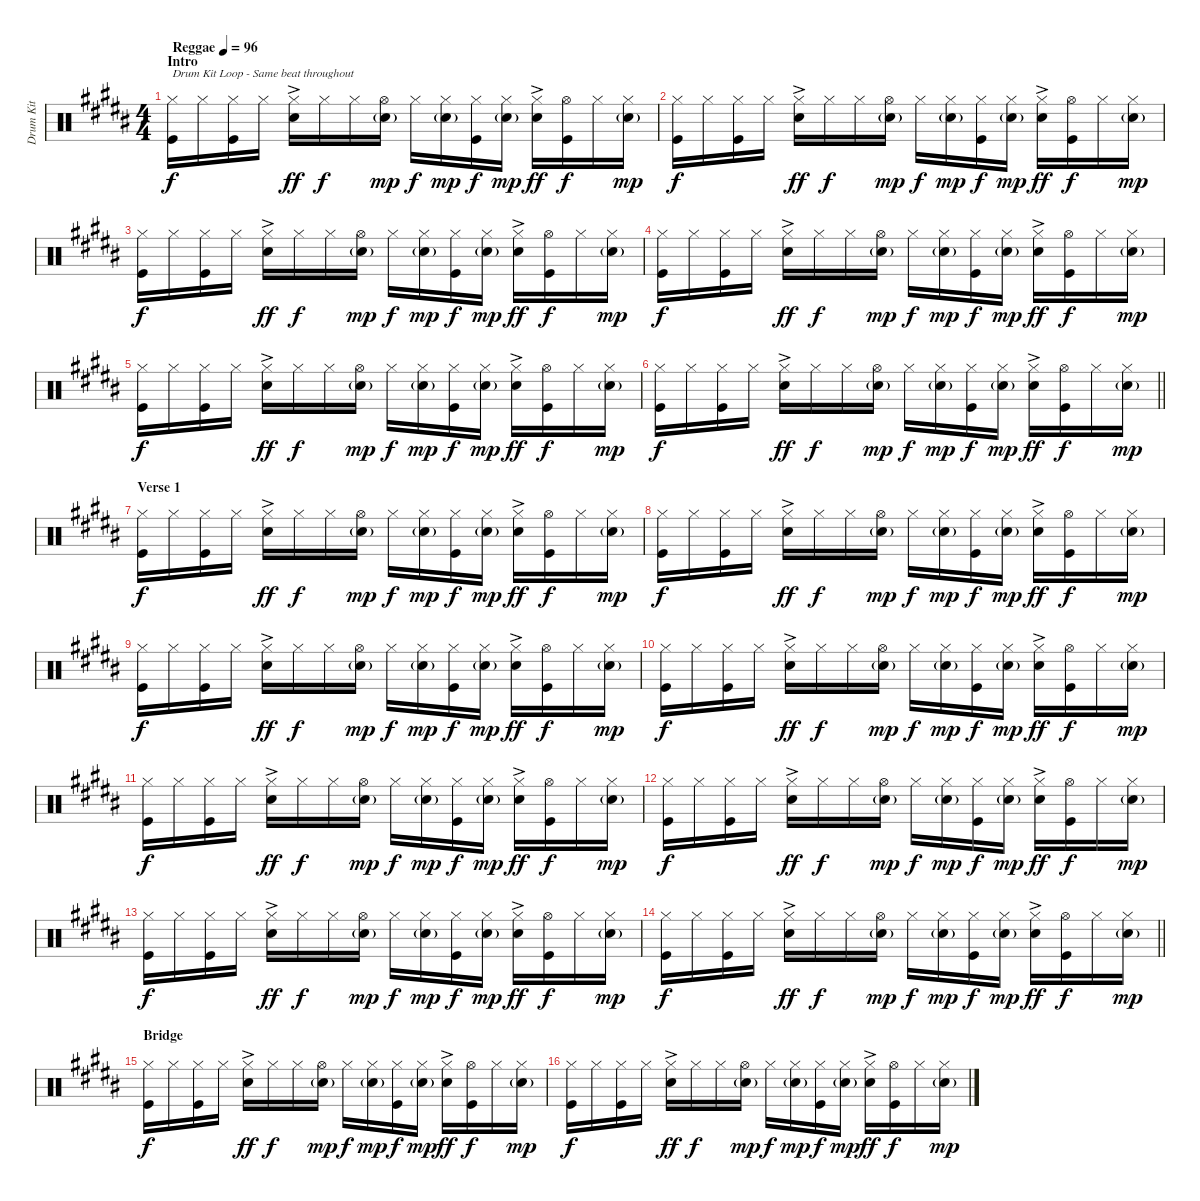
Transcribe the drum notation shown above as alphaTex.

\track ("Drum Kit" "Drum Kit") {instrument percussion}
\staff {score}
\articulation defaults
\ts (4 4)
\section ("" "Intro")
\tempo (96 "Reggae")
\clef neutral
\ks b
("Kick (hit)" "Hi-Hat (closed)").16{txt "Drum Kit Loop - Same beat throughout" dy f} "Hi-Hat (closed)".16 ("Kick (hit)" "Hi-Hat (closed)").16 "Hi-Hat (closed)".16 ("Snare (hit) 2"{ac} "Hi-Hat (closed)").16{dy ff} "Hi-Hat (closed)".16{dy f} "Hi-Hat (closed)".16 ("Snare (hit) 2"{g} "Hi-Hat (open)").16{dy mp} "Hi-Hat (closed)".16{dy f} ("Snare (hit) 2"{g} "Hi-Hat (closed)").16{dy mp} ("Kick (hit)" "Hi-Hat (closed)").16{dy f} ("Snare (hit) 2"{g} "Hi-Hat (closed)").16{dy mp} ("Snare (hit) 2"{ac} "Hi-Hat (closed)").16{dy ff} ("Kick (hit)" "Hi-Hat (open)").16{dy f} "Hi-Hat (closed)".16 ("Snare (hit) 2"{g} "Hi-Hat (closed)").16{dy mp} |
("Kick (hit)" "Hi-Hat (closed)").16{dy f} "Hi-Hat (closed)".16 ("Kick (hit)" "Hi-Hat (closed)").16 "Hi-Hat (closed)".16 ("Snare (hit) 2"{ac} "Hi-Hat (closed)").16{dy ff} "Hi-Hat (closed)".16{dy f} "Hi-Hat (closed)".16 ("Snare (hit) 2"{g} "Hi-Hat (open)").16{dy mp} "Hi-Hat (closed)".16{dy f} ("Snare (hit) 2"{g} "Hi-Hat (closed)").16{dy mp} ("Kick (hit)" "Hi-Hat (closed)").16{dy f} ("Snare (hit) 2"{g} "Hi-Hat (closed)").16{dy mp} ("Snare (hit) 2"{ac} "Hi-Hat (closed)").16{dy ff} ("Kick (hit)" "Hi-Hat (open)").16{dy f} "Hi-Hat (closed)".16 ("Snare (hit) 2"{g} "Hi-Hat (closed)").16{dy mp} |
("Kick (hit)" "Hi-Hat (closed)").16{dy f} "Hi-Hat (closed)".16 ("Kick (hit)" "Hi-Hat (closed)").16 "Hi-Hat (closed)".16 ("Snare (hit) 2"{ac} "Hi-Hat (closed)").16{dy ff} "Hi-Hat (closed)".16{dy f} "Hi-Hat (closed)".16 ("Snare (hit) 2"{g} "Hi-Hat (open)").16{dy mp} "Hi-Hat (closed)".16{dy f} ("Snare (hit) 2"{g} "Hi-Hat (closed)").16{dy mp} ("Kick (hit)" "Hi-Hat (closed)").16{dy f} ("Snare (hit) 2"{g} "Hi-Hat (closed)").16{dy mp} ("Snare (hit) 2"{ac} "Hi-Hat (closed)").16{dy ff} ("Kick (hit)" "Hi-Hat (open)").16{dy f} "Hi-Hat (closed)".16 ("Snare (hit) 2"{g} "Hi-Hat (closed)").16{dy mp} |
("Kick (hit)" "Hi-Hat (closed)").16{dy f} "Hi-Hat (closed)".16 ("Kick (hit)" "Hi-Hat (closed)").16 "Hi-Hat (closed)".16 ("Snare (hit) 2"{ac} "Hi-Hat (closed)").16{dy ff} "Hi-Hat (closed)".16{dy f} "Hi-Hat (closed)".16 ("Snare (hit) 2"{g} "Hi-Hat (open)").16{dy mp} "Hi-Hat (closed)".16{dy f} ("Snare (hit) 2"{g} "Hi-Hat (closed)").16{dy mp} ("Kick (hit)" "Hi-Hat (closed)").16{dy f} ("Snare (hit) 2"{g} "Hi-Hat (closed)").16{dy mp} ("Snare (hit) 2"{ac} "Hi-Hat (closed)").16{dy ff} ("Kick (hit)" "Hi-Hat (open)").16{dy f} "Hi-Hat (closed)".16 ("Snare (hit) 2"{g} "Hi-Hat (closed)").16{dy mp} |
("Kick (hit)" "Hi-Hat (closed)").16{dy f} "Hi-Hat (closed)".16 ("Kick (hit)" "Hi-Hat (closed)").16 "Hi-Hat (closed)".16 ("Snare (hit) 2"{ac} "Hi-Hat (closed)").16{dy ff} "Hi-Hat (closed)".16{dy f} "Hi-Hat (closed)".16 ("Snare (hit) 2"{g} "Hi-Hat (open)").16{dy mp} "Hi-Hat (closed)".16{dy f} ("Snare (hit) 2"{g} "Hi-Hat (closed)").16{dy mp} ("Kick (hit)" "Hi-Hat (closed)").16{dy f} ("Snare (hit) 2"{g} "Hi-Hat (closed)").16{dy mp} ("Snare (hit) 2"{ac} "Hi-Hat (closed)").16{dy ff} ("Kick (hit)" "Hi-Hat (open)").16{dy f} "Hi-Hat (closed)".16 ("Snare (hit) 2"{g} "Hi-Hat (closed)").16{dy mp} |
\barLineRight lightlight
("Kick (hit)" "Hi-Hat (closed)").16{dy f} "Hi-Hat (closed)".16 ("Kick (hit)" "Hi-Hat (closed)").16 "Hi-Hat (closed)".16 ("Snare (hit) 2"{ac} "Hi-Hat (closed)").16{dy ff} "Hi-Hat (closed)".16{dy f} "Hi-Hat (closed)".16 ("Snare (hit) 2"{g} "Hi-Hat (open)").16{dy mp} "Hi-Hat (closed)".16{dy f} ("Snare (hit) 2"{g} "Hi-Hat (closed)").16{dy mp} ("Kick (hit)" "Hi-Hat (closed)").16{dy f} ("Snare (hit) 2"{g} "Hi-Hat (closed)").16{dy mp} ("Snare (hit) 2"{ac} "Hi-Hat (closed)").16{dy ff} ("Kick (hit)" "Hi-Hat (open)").16{dy f} "Hi-Hat (closed)".16 ("Snare (hit) 2"{g} "Hi-Hat (closed)").16{dy mp} |
\section ("" "Verse 1")
("Kick (hit)" "Hi-Hat (closed)").16{dy f} "Hi-Hat (closed)".16 ("Kick (hit)" "Hi-Hat (closed)").16 "Hi-Hat (closed)".16 ("Snare (hit) 2"{ac} "Hi-Hat (closed)").16{dy ff} "Hi-Hat (closed)".16{dy f} "Hi-Hat (closed)".16 ("Snare (hit) 2"{g} "Hi-Hat (open)").16{dy mp} "Hi-Hat (closed)".16{dy f} ("Snare (hit) 2"{g} "Hi-Hat (closed)").16{dy mp} ("Kick (hit)" "Hi-Hat (closed)").16{dy f} ("Snare (hit) 2"{g} "Hi-Hat (closed)").16{dy mp} ("Snare (hit) 2"{ac} "Hi-Hat (closed)").16{dy ff} ("Kick (hit)" "Hi-Hat (open)").16{dy f} "Hi-Hat (closed)".16 ("Snare (hit) 2"{g} "Hi-Hat (closed)").16{dy mp} |
("Kick (hit)" "Hi-Hat (closed)").16{dy f} "Hi-Hat (closed)".16 ("Kick (hit)" "Hi-Hat (closed)").16 "Hi-Hat (closed)".16 ("Snare (hit) 2"{ac} "Hi-Hat (closed)").16{dy ff} "Hi-Hat (closed)".16{dy f} "Hi-Hat (closed)".16 ("Snare (hit) 2"{g} "Hi-Hat (open)").16{dy mp} "Hi-Hat (closed)".16{dy f} ("Snare (hit) 2"{g} "Hi-Hat (closed)").16{dy mp} ("Kick (hit)" "Hi-Hat (closed)").16{dy f} ("Snare (hit) 2"{g} "Hi-Hat (closed)").16{dy mp} ("Snare (hit) 2"{ac} "Hi-Hat (closed)").16{dy ff} ("Kick (hit)" "Hi-Hat (open)").16{dy f} "Hi-Hat (closed)".16 ("Snare (hit) 2"{g} "Hi-Hat (closed)").16{dy mp} |
("Kick (hit)" "Hi-Hat (closed)").16{dy f} "Hi-Hat (closed)".16 ("Kick (hit)" "Hi-Hat (closed)").16 "Hi-Hat (closed)".16 ("Snare (hit) 2"{ac} "Hi-Hat (closed)").16{dy ff} "Hi-Hat (closed)".16{dy f} "Hi-Hat (closed)".16 ("Snare (hit) 2"{g} "Hi-Hat (open)").16{dy mp} "Hi-Hat (closed)".16{dy f} ("Snare (hit) 2"{g} "Hi-Hat (closed)").16{dy mp} ("Kick (hit)" "Hi-Hat (closed)").16{dy f} ("Snare (hit) 2"{g} "Hi-Hat (closed)").16{dy mp} ("Snare (hit) 2"{ac} "Hi-Hat (closed)").16{dy ff} ("Kick (hit)" "Hi-Hat (open)").16{dy f} "Hi-Hat (closed)".16 ("Snare (hit) 2"{g} "Hi-Hat (closed)").16{dy mp} |
("Kick (hit)" "Hi-Hat (closed)").16{dy f} "Hi-Hat (closed)".16 ("Kick (hit)" "Hi-Hat (closed)").16 "Hi-Hat (closed)".16 ("Snare (hit) 2"{ac} "Hi-Hat (closed)").16{dy ff} "Hi-Hat (closed)".16{dy f} "Hi-Hat (closed)".16 ("Snare (hit) 2"{g} "Hi-Hat (open)").16{dy mp} "Hi-Hat (closed)".16{dy f} ("Snare (hit) 2"{g} "Hi-Hat (closed)").16{dy mp} ("Kick (hit)" "Hi-Hat (closed)").16{dy f} ("Snare (hit) 2"{g} "Hi-Hat (closed)").16{dy mp} ("Snare (hit) 2"{ac} "Hi-Hat (closed)").16{dy ff} ("Kick (hit)" "Hi-Hat (open)").16{dy f} "Hi-Hat (closed)".16 ("Snare (hit) 2"{g} "Hi-Hat (closed)").16{dy mp} |
("Kick (hit)" "Hi-Hat (closed)").16{dy f} "Hi-Hat (closed)".16 ("Kick (hit)" "Hi-Hat (closed)").16 "Hi-Hat (closed)".16 ("Snare (hit) 2"{ac} "Hi-Hat (closed)").16{dy ff} "Hi-Hat (closed)".16{dy f} "Hi-Hat (closed)".16 ("Snare (hit) 2"{g} "Hi-Hat (open)").16{dy mp} "Hi-Hat (closed)".16{dy f} ("Snare (hit) 2"{g} "Hi-Hat (closed)").16{dy mp} ("Kick (hit)" "Hi-Hat (closed)").16{dy f} ("Snare (hit) 2"{g} "Hi-Hat (closed)").16{dy mp} ("Snare (hit) 2"{ac} "Hi-Hat (closed)").16{dy ff} ("Kick (hit)" "Hi-Hat (open)").16{dy f} "Hi-Hat (closed)".16 ("Snare (hit) 2"{g} "Hi-Hat (closed)").16{dy mp} |
("Kick (hit)" "Hi-Hat (closed)").16{dy f} "Hi-Hat (closed)".16 ("Kick (hit)" "Hi-Hat (closed)").16 "Hi-Hat (closed)".16 ("Snare (hit) 2"{ac} "Hi-Hat (closed)").16{dy ff} "Hi-Hat (closed)".16{dy f} "Hi-Hat (closed)".16 ("Snare (hit) 2"{g} "Hi-Hat (open)").16{dy mp} "Hi-Hat (closed)".16{dy f} ("Snare (hit) 2"{g} "Hi-Hat (closed)").16{dy mp} ("Kick (hit)" "Hi-Hat (closed)").16{dy f} ("Snare (hit) 2"{g} "Hi-Hat (closed)").16{dy mp} ("Snare (hit) 2"{ac} "Hi-Hat (closed)").16{dy ff} ("Kick (hit)" "Hi-Hat (open)").16{dy f} "Hi-Hat (closed)".16 ("Snare (hit) 2"{g} "Hi-Hat (closed)").16{dy mp} |
("Kick (hit)" "Hi-Hat (closed)").16{dy f} "Hi-Hat (closed)".16 ("Kick (hit)" "Hi-Hat (closed)").16 "Hi-Hat (closed)".16 ("Snare (hit) 2"{ac} "Hi-Hat (closed)").16{dy ff} "Hi-Hat (closed)".16{dy f} "Hi-Hat (closed)".16 ("Snare (hit) 2"{g} "Hi-Hat (open)").16{dy mp} "Hi-Hat (closed)".16{dy f} ("Snare (hit) 2"{g} "Hi-Hat (closed)").16{dy mp} ("Kick (hit)" "Hi-Hat (closed)").16{dy f} ("Snare (hit) 2"{g} "Hi-Hat (closed)").16{dy mp} ("Snare (hit) 2"{ac} "Hi-Hat (closed)").16{dy ff} ("Kick (hit)" "Hi-Hat (open)").16{dy f} "Hi-Hat (closed)".16 ("Snare (hit) 2"{g} "Hi-Hat (closed)").16{dy mp} |
\barLineRight lightlight
("Kick (hit)" "Hi-Hat (closed)").16{dy f} "Hi-Hat (closed)".16 ("Kick (hit)" "Hi-Hat (closed)").16 "Hi-Hat (closed)".16 ("Snare (hit) 2"{ac} "Hi-Hat (closed)").16{dy ff} "Hi-Hat (closed)".16{dy f} "Hi-Hat (closed)".16 ("Snare (hit) 2"{g} "Hi-Hat (open)").16{dy mp} "Hi-Hat (closed)".16{dy f} ("Snare (hit) 2"{g} "Hi-Hat (closed)").16{dy mp} ("Kick (hit)" "Hi-Hat (closed)").16{dy f} ("Snare (hit) 2"{g} "Hi-Hat (closed)").16{dy mp} ("Snare (hit) 2"{ac} "Hi-Hat (closed)").16{dy ff} ("Kick (hit)" "Hi-Hat (open)").16{dy f} "Hi-Hat (closed)".16 ("Snare (hit) 2"{g} "Hi-Hat (closed)").16{dy mp} |
\section ("" "Bridge")
("Kick (hit)" "Hi-Hat (closed)").16{dy f} "Hi-Hat (closed)".16 ("Kick (hit)" "Hi-Hat (closed)").16 "Hi-Hat (closed)".16 ("Snare (hit) 2"{ac} "Hi-Hat (closed)").16{dy ff} "Hi-Hat (closed)".16{dy f} "Hi-Hat (closed)".16 ("Snare (hit) 2"{g} "Hi-Hat (open)").16{dy mp} "Hi-Hat (closed)".16{dy f} ("Snare (hit) 2"{g} "Hi-Hat (closed)").16{dy mp} ("Kick (hit)" "Hi-Hat (closed)").16{dy f} ("Snare (hit) 2"{g} "Hi-Hat (closed)").16{dy mp} ("Snare (hit) 2"{ac} "Hi-Hat (closed)").16{dy ff} ("Kick (hit)" "Hi-Hat (open)").16{dy f} "Hi-Hat (closed)".16 ("Snare (hit) 2"{g} "Hi-Hat (closed)").16{dy mp} |
("Kick (hit)" "Hi-Hat (closed)").16{dy f} "Hi-Hat (closed)".16 ("Kick (hit)" "Hi-Hat (closed)").16 "Hi-Hat (closed)".16 ("Snare (hit) 2"{ac} "Hi-Hat (closed)").16{dy ff} "Hi-Hat (closed)".16{dy f} "Hi-Hat (closed)".16 ("Snare (hit) 2"{g} "Hi-Hat (open)").16{dy mp} "Hi-Hat (closed)".16{dy f} ("Snare (hit) 2"{g} "Hi-Hat (closed)").16{dy mp} ("Kick (hit)" "Hi-Hat (closed)").16{dy f} ("Snare (hit) 2"{g} "Hi-Hat (closed)").16{dy mp} ("Snare (hit) 2"{ac} "Hi-Hat (closed)").16{dy ff} ("Kick (hit)" "Hi-Hat (open)").16{dy f} "Hi-Hat (closed)".16 ("Snare (hit) 2"{g} "Hi-Hat (closed)").16{dy mp}
